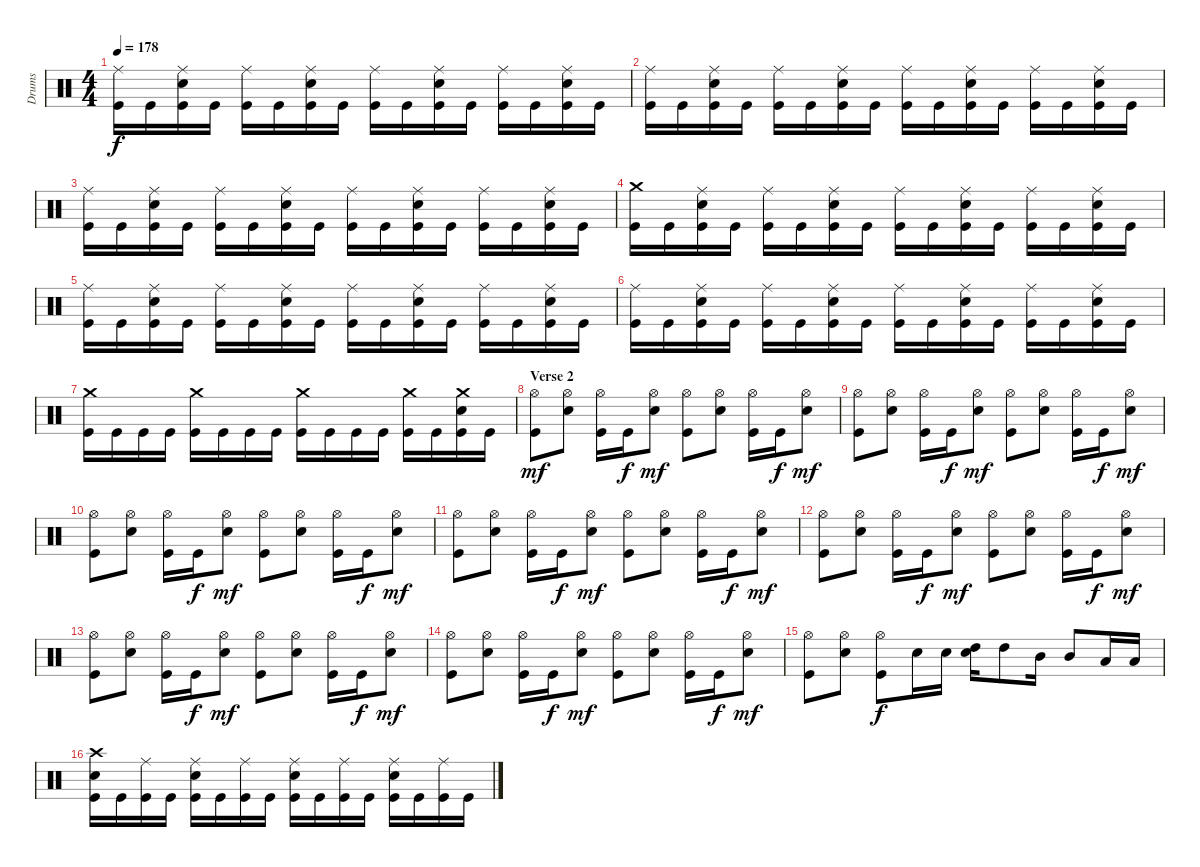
\track ("Drums" "Drums") {instrument percussion}
\staff {score}
\articulation defaults
\ts (4 4)
\tempo 178
\clef neutral
\ks c
("Ride (middle)" "Kick (hit)").16{dy f} "Kick (hit)".16 ("Ride (middle)" "Electric Snare (hit)" "Kick (hit)").16 "Kick (hit)".16 ("Ride (middle)" "Kick (hit)").16 "Kick (hit)".16 ("Ride (middle)" "Electric Snare (hit)" "Kick (hit)").16 "Kick (hit)".16 ("Ride (middle)" "Kick (hit)").16 "Kick (hit)".16 ("Ride (middle)" "Electric Snare (hit)" "Kick (hit)").16 "Kick (hit)".16 ("Ride (middle)" "Kick (hit)").16 "Kick (hit)".16 ("Ride (middle)" "Electric Snare (hit)" "Kick (hit)").16 "Kick (hit)".16 |
("Ride (middle)" "Kick (hit)").16 "Kick (hit)".16 ("Ride (middle)" "Electric Snare (hit)" "Kick (hit)").16 "Kick (hit)".16 ("Ride (middle)" "Kick (hit)").16 "Kick (hit)".16 ("Ride (middle)" "Electric Snare (hit)" "Kick (hit)").16 "Kick (hit)".16 ("Ride (middle)" "Kick (hit)").16 "Kick (hit)".16 ("Ride (middle)" "Electric Snare (hit)" "Kick (hit)").16 "Kick (hit)".16 ("Ride (middle)" "Kick (hit)").16 "Kick (hit)".16 ("Ride (middle)" "Electric Snare (hit)" "Kick (hit)").16 "Kick (hit)".16 |
("Ride (middle)" "Kick (hit)").16 "Kick (hit)".16 ("Ride (middle)" "Electric Snare (hit)" "Kick (hit)").16 "Kick (hit)".16 ("Ride (middle)" "Kick (hit)").16 "Kick (hit)".16 ("Ride (middle)" "Electric Snare (hit)" "Kick (hit)").16 "Kick (hit)".16 ("Ride (middle)" "Kick (hit)").16 "Kick (hit)".16 ("Ride (middle)" "Electric Snare (hit)" "Kick (hit)").16 "Kick (hit)".16 ("Ride (middle)" "Kick (hit)").16 "Kick (hit)".16 ("Ride (middle)" "Electric Snare (hit)" "Kick (hit)").16 "Kick (hit)".16 |
("Crash medium (hit)" "Kick (hit)").16 "Kick (hit)".16 ("Ride (middle)" "Electric Snare (hit)" "Kick (hit)").16 "Kick (hit)".16 ("Ride (middle)" "Kick (hit)").16 "Kick (hit)".16 ("Ride (middle)" "Electric Snare (hit)" "Kick (hit)").16 "Kick (hit)".16 ("Ride (middle)" "Kick (hit)").16 "Kick (hit)".16 ("Ride (middle)" "Electric Snare (hit)" "Kick (hit)").16 "Kick (hit)".16 ("Ride (middle)" "Kick (hit)").16 "Kick (hit)".16 ("Ride (middle)" "Electric Snare (hit)" "Kick (hit)").16 "Kick (hit)".16 |
("Ride (middle)" "Kick (hit)").16 "Kick (hit)".16 ("Ride (middle)" "Electric Snare (hit)" "Kick (hit)").16 "Kick (hit)".16 ("Ride (middle)" "Kick (hit)").16 "Kick (hit)".16 ("Ride (middle)" "Electric Snare (hit)" "Kick (hit)").16 "Kick (hit)".16 ("Ride (middle)" "Kick (hit)").16 "Kick (hit)".16 ("Ride (middle)" "Electric Snare (hit)" "Kick (hit)").16 "Kick (hit)".16 ("Ride (middle)" "Kick (hit)").16 "Kick (hit)".16 ("Ride (middle)" "Electric Snare (hit)" "Kick (hit)").16 "Kick (hit)".16 |
("Ride (middle)" "Kick (hit)").16 "Kick (hit)".16 ("Ride (middle)" "Electric Snare (hit)" "Kick (hit)").16 "Kick (hit)".16 ("Ride (middle)" "Kick (hit)").16 "Kick (hit)".16 ("Ride (middle)" "Electric Snare (hit)" "Kick (hit)").16 "Kick (hit)".16 ("Ride (middle)" "Kick (hit)").16 "Kick (hit)".16 ("Ride (middle)" "Electric Snare (hit)" "Kick (hit)").16 "Kick (hit)".16 ("Ride (middle)" "Kick (hit)").16 "Kick (hit)".16 ("Ride (middle)" "Electric Snare (hit)" "Kick (hit)").16 "Kick (hit)".16 |
("Crash medium (hit)" "Kick (hit)").16 "Kick (hit)".16 "Kick (hit)".16 "Kick (hit)".16 ("Crash medium (hit)" "Kick (hit)").16 "Kick (hit)".16 "Kick (hit)".16 "Kick (hit)".16 ("Crash medium (hit)" "Kick (hit)").16 "Kick (hit)".16 "Kick (hit)".16 "Kick (hit)".16 ("Crash medium (hit)" "Kick (hit)").16 "Kick (hit)".16 ("Crash medium (hit)" "Electric Snare (hit)" "Kick (hit)").16 "Kick (hit)".16 |
\section ("" "Verse 2")
("Hi-Hat (open)" "Kick (hit)").8{dy mf} ("Hi-Hat (open)" "Electric Snare (hit)").8 ("Hi-Hat (open)" "Kick (hit)").16 "Kick (hit)".16{dy f} ("Hi-Hat (open)" "Electric Snare (hit)").8{dy mf} ("Hi-Hat (open)" "Kick (hit)").8 ("Hi-Hat (open)" "Electric Snare (hit)").8 ("Hi-Hat (open)" "Kick (hit)").16 "Kick (hit)".16{dy f} ("Hi-Hat (open)" "Electric Snare (hit)").8{dy mf} |
("Hi-Hat (open)" "Kick (hit)").8 ("Hi-Hat (open)" "Electric Snare (hit)").8 ("Hi-Hat (open)" "Kick (hit)").16 "Kick (hit)".16{dy f} ("Hi-Hat (open)" "Electric Snare (hit)").8{dy mf} ("Hi-Hat (open)" "Kick (hit)").8 ("Hi-Hat (open)" "Electric Snare (hit)").8 ("Hi-Hat (open)" "Kick (hit)").16 "Kick (hit)".16{dy f} ("Hi-Hat (open)" "Electric Snare (hit)").8{dy mf} |
("Hi-Hat (open)" "Kick (hit)").8 ("Hi-Hat (open)" "Electric Snare (hit)").8 ("Hi-Hat (open)" "Kick (hit)").16 "Kick (hit)".16{dy f} ("Hi-Hat (open)" "Electric Snare (hit)").8{dy mf} ("Hi-Hat (open)" "Kick (hit)").8 ("Hi-Hat (open)" "Electric Snare (hit)").8 ("Hi-Hat (open)" "Kick (hit)").16 "Kick (hit)".16{dy f} ("Hi-Hat (open)" "Electric Snare (hit)").8{dy mf} |
("Hi-Hat (open)" "Kick (hit)").8 ("Hi-Hat (open)" "Electric Snare (hit)").8 ("Hi-Hat (open)" "Kick (hit)").16 "Kick (hit)".16{dy f} ("Hi-Hat (open)" "Electric Snare (hit)").8{dy mf} ("Hi-Hat (open)" "Kick (hit)").8 ("Hi-Hat (open)" "Electric Snare (hit)").8 ("Hi-Hat (open)" "Kick (hit)").16 "Kick (hit)".16{dy f} ("Hi-Hat (open)" "Electric Snare (hit)").8{dy mf} |
("Hi-Hat (open)" "Kick (hit)").8 ("Hi-Hat (open)" "Electric Snare (hit)").8 ("Hi-Hat (open)" "Kick (hit)").16 "Kick (hit)".16{dy f} ("Hi-Hat (open)" "Electric Snare (hit)").8{dy mf} ("Hi-Hat (open)" "Kick (hit)").8 ("Hi-Hat (open)" "Electric Snare (hit)").8 ("Hi-Hat (open)" "Kick (hit)").16 "Kick (hit)".16{dy f} ("Hi-Hat (open)" "Electric Snare (hit)").8{dy mf} |
("Hi-Hat (open)" "Kick (hit)").8 ("Hi-Hat (open)" "Electric Snare (hit)").8 ("Hi-Hat (open)" "Kick (hit)").16 "Kick (hit)".16{dy f} ("Hi-Hat (open)" "Electric Snare (hit)").8{dy mf} ("Hi-Hat (open)" "Kick (hit)").8 ("Hi-Hat (open)" "Electric Snare (hit)").8 ("Hi-Hat (open)" "Kick (hit)").16 "Kick (hit)".16{dy f} ("Hi-Hat (open)" "Electric Snare (hit)").8{dy mf} |
("Hi-Hat (open)" "Kick (hit)").8 ("Hi-Hat (open)" "Electric Snare (hit)").8 ("Hi-Hat (open)" "Kick (hit)").16 "Kick (hit)".16{dy f} ("Hi-Hat (open)" "Electric Snare (hit)").8{dy mf} ("Hi-Hat (open)" "Kick (hit)").8 ("Hi-Hat (open)" "Electric Snare (hit)").8 ("Hi-Hat (open)" "Kick (hit)").16 "Kick (hit)".16{dy f} ("Hi-Hat (open)" "Electric Snare (hit)").8{dy mf} |
("Hi-Hat (open)" "Kick (hit)").8 ("Hi-Hat (open)" "Electric Snare (hit)").8 ("Hi-Hat (open)" "Kick (hit)").8{dy f} "Electric Snare (hit)".16 "Electric Snare (hit)".16 ("Electric Snare (hit)" "High Tom (hit)").16 "High Tom (hit)".8 "Mid Tom (hit)".16 "Mid Tom (hit)".8 "Low Tom (hit)".16 "Low Tom (hit)".16 |
("Crash high (hit)" "Electric Snare (hit)" "Kick (hit)").16 "Kick (hit)".16 ("Ride (middle)" "Kick (hit)").16 "Kick (hit)".16 ("Ride (middle)" "Electric Snare (hit)" "Kick (hit)").16 "Kick (hit)".16 ("Ride (middle)" "Kick (hit)").16 "Kick (hit)".16 ("Ride (middle)" "Electric Snare (hit)" "Kick (hit)").16 "Kick (hit)".16 ("Ride (middle)" "Kick (hit)").16 "Kick (hit)".16 ("Ride (middle)" "Electric Snare (hit)" "Kick (hit)").16 "Kick (hit)".16 ("Ride (middle)" "Kick (hit)").16 "Kick (hit)".16
